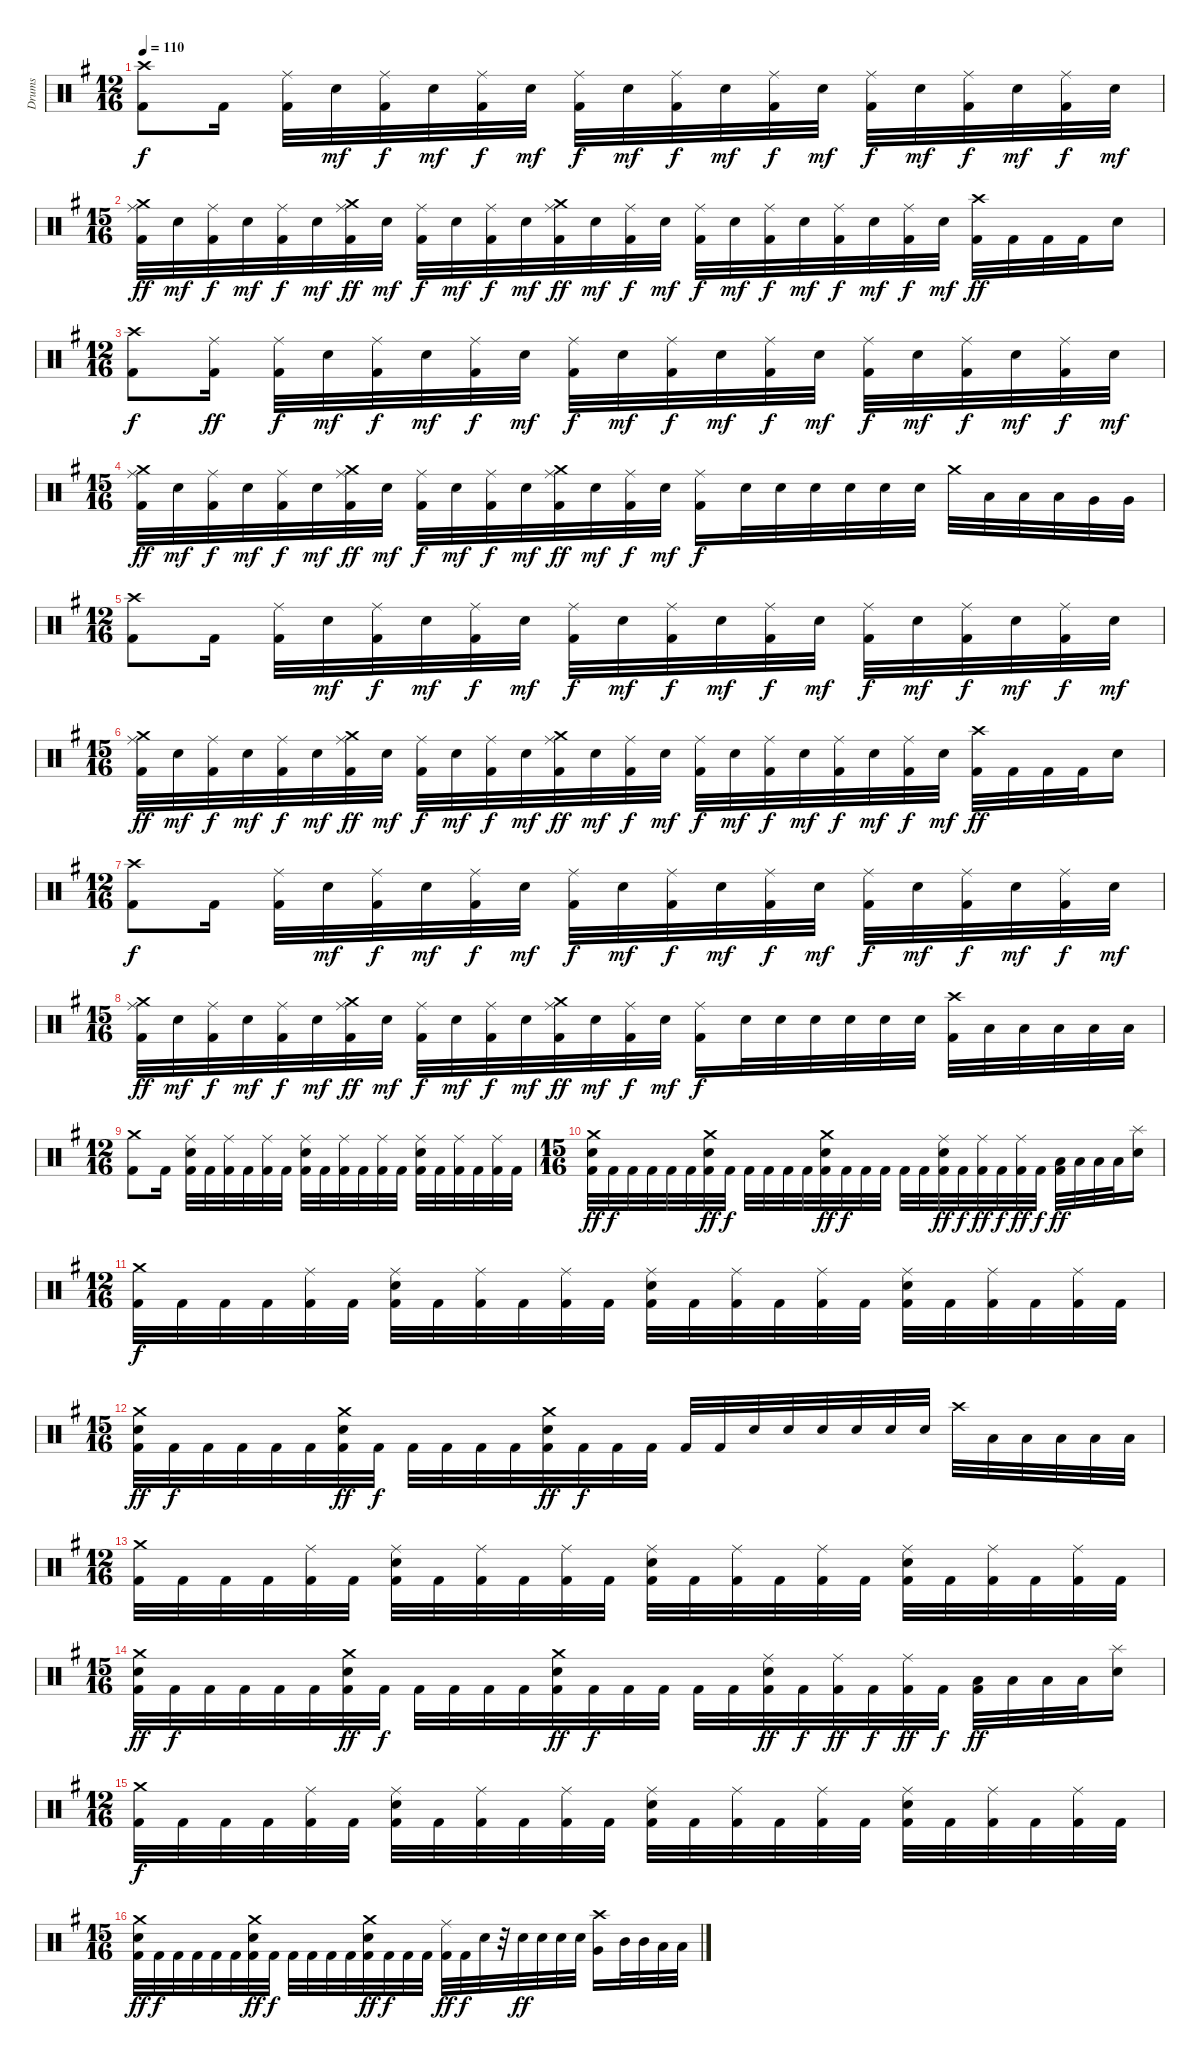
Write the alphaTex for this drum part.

\track ("Drums" "Drums") {instrument percussion}
\staff {score}
\articulation defaults
\ts (12 16)
\tempo 110
\clef neutral
\ks eminor
("Crash high (hit)" "Kick (hit) 2").8{dy f} "Kick (hit) 2".16 ("Ride (middle)" "Kick (hit) 2").32 "Snare (hit) 2".32{dy mf} ("Ride (middle)" "Kick (hit) 2").32{dy f} "Snare (hit) 2".32{dy mf} ("Ride (middle)" "Kick (hit) 2").32{dy f} "Snare (hit) 2".32{dy mf} ("Ride (middle)" "Kick (hit) 2").32{dy f} "Snare (hit) 2".32{dy mf} ("Ride (middle)" "Kick (hit) 2").32{dy f} "Snare (hit) 2".32{dy mf} ("Ride (middle)" "Kick (hit) 2").32{dy f} "Snare (hit) 2".32{dy mf} ("Ride (middle)" "Kick (hit) 2").32{dy f} "Snare (hit) 2".32{dy mf} ("Ride (middle)" "Kick (hit) 2").32{dy f} "Snare (hit) 2".32{dy mf} ("Ride (middle)" "Kick (hit) 2").32{dy f} "Snare (hit) 2".32{dy mf} |
\ts (15 16)
("Crash medium (hit)" "Ride (middle)" "Kick (hit) 2").32{dy ff} "Snare (hit) 2".32{dy mf} ("Ride (middle)" "Kick (hit) 2").32{dy f} "Snare (hit) 2".32{dy mf} ("Ride (middle)" "Kick (hit) 2").32{dy f} "Snare (hit) 2".32{dy mf} ("Crash medium (hit)" "Ride (middle)" "Kick (hit) 2").32{dy ff} "Snare (hit) 2".32{dy mf} ("Ride (middle)" "Kick (hit) 2").32{dy f} "Snare (hit) 2".32{dy mf} ("Ride (middle)" "Kick (hit) 2").32{dy f} "Snare (hit) 2".32{dy mf} ("Crash medium (hit)" "Ride (middle)" "Kick (hit) 2").32{dy ff} "Snare (hit) 2".32{dy mf} ("Ride (middle)" "Kick (hit) 2").32{dy f} "Snare (hit) 2".32{dy mf} ("Ride (middle)" "Kick (hit) 2").32{dy f} "Snare (hit) 2".32{dy mf} ("Ride (middle)" "Kick (hit) 2").32{dy f} "Snare (hit) 2".32{dy mf} ("Ride (middle)" "Kick (hit) 2").32{dy f} "Snare (hit) 2".32{dy mf} ("Ride (middle)" "Kick (hit) 2").32{dy f} "Snare (hit) 2".32{dy mf} ("Crash high (hit)" "Kick (hit) 2").32{dy ff} "Kick (hit) 2".32 "Kick (hit) 2".32 "Kick (hit) 2".32 "Electric Snare (hit)".16 |
\ts (12 16)
("Crash high (hit)" "Kick (hit) 2").8{dy f} ("Ride (middle)" "Kick (hit) 2").16{dy ff} ("Ride (middle)" "Kick (hit) 2").32{dy f} "Snare (hit) 2".32{dy mf} ("Ride (middle)" "Kick (hit) 2").32{dy f} "Snare (hit) 2".32{dy mf} ("Ride (middle)" "Kick (hit) 2").32{dy f} "Snare (hit) 2".32{dy mf} ("Ride (middle)" "Kick (hit) 2").32{dy f} "Snare (hit) 2".32{dy mf} ("Ride (middle)" "Kick (hit) 2").32{dy f} "Snare (hit) 2".32{dy mf} ("Ride (middle)" "Kick (hit) 2").32{dy f} "Snare (hit) 2".32{dy mf} ("Ride (middle)" "Kick (hit) 2").32{dy f} "Snare (hit) 2".32{dy mf} ("Ride (middle)" "Kick (hit) 2").32{dy f} "Snare (hit) 2".32{dy mf} ("Ride (middle)" "Kick (hit) 2").32{dy f} "Snare (hit) 2".32{dy mf} |
\ts (15 16)
("Crash medium (hit)" "Ride (middle)" "Kick (hit) 2").32{dy ff} "Snare (hit) 2".32{dy mf} ("Ride (middle)" "Kick (hit) 2").32{dy f} "Snare (hit) 2".32{dy mf} ("Ride (middle)" "Kick (hit) 2").32{dy f} "Snare (hit) 2".32{dy mf} ("Crash medium (hit)" "Ride (middle)" "Kick (hit) 2").32{dy ff} "Snare (hit) 2".32{dy mf} ("Ride (middle)" "Kick (hit) 2").32{dy f} "Snare (hit) 2".32{dy mf} ("Ride (middle)" "Kick (hit) 2").32{dy f} "Snare (hit) 2".32{dy mf} ("Crash medium (hit)" "Ride (middle)" "Kick (hit) 2").32{dy ff} "Snare (hit) 2".32{dy mf} ("Ride (middle)" "Kick (hit) 2").32{dy f} "Snare (hit) 2".32{dy mf} ("Ride (middle)" "Kick (hit) 2").16{dy f} "Snare (hit) 2".32 "Snare (hit) 2".32 "Snare (hit) 2".32 "Snare (hit) 2".32 "Snare (hit) 2".32 "Snare (hit) 2".32 "Crash medium (hit)".32 "Low Tom (hit)".32 "Low Tom (hit)".32 "Low Tom (hit)".32 "Very Low Tom (hit)".32 "Very Low Tom (hit)".32 |
\ts (12 16)
("Crash high (hit)" "Kick (hit) 2").8 "Kick (hit) 2".16 ("Ride (middle)" "Kick (hit) 2").32 "Snare (hit) 2".32{dy mf} ("Ride (middle)" "Kick (hit) 2").32{dy f} "Snare (hit) 2".32{dy mf} ("Ride (middle)" "Kick (hit) 2").32{dy f} "Snare (hit) 2".32{dy mf} ("Ride (middle)" "Kick (hit) 2").32{dy f} "Snare (hit) 2".32{dy mf} ("Ride (middle)" "Kick (hit) 2").32{dy f} "Snare (hit) 2".32{dy mf} ("Ride (middle)" "Kick (hit) 2").32{dy f} "Snare (hit) 2".32{dy mf} ("Ride (middle)" "Kick (hit) 2").32{dy f} "Snare (hit) 2".32{dy mf} ("Ride (middle)" "Kick (hit) 2").32{dy f} "Snare (hit) 2".32{dy mf} ("Ride (middle)" "Kick (hit) 2").32{dy f} "Snare (hit) 2".32{dy mf} |
\ts (15 16)
("Crash medium (hit)" "Ride (middle)" "Kick (hit) 2").32{dy ff} "Snare (hit) 2".32{dy mf} ("Ride (middle)" "Kick (hit) 2").32{dy f} "Snare (hit) 2".32{dy mf} ("Ride (middle)" "Kick (hit) 2").32{dy f} "Snare (hit) 2".32{dy mf} ("Crash medium (hit)" "Ride (middle)" "Kick (hit) 2").32{dy ff} "Snare (hit) 2".32{dy mf} ("Ride (middle)" "Kick (hit) 2").32{dy f} "Snare (hit) 2".32{dy mf} ("Ride (middle)" "Kick (hit) 2").32{dy f} "Snare (hit) 2".32{dy mf} ("Crash medium (hit)" "Ride (middle)" "Kick (hit) 2").32{dy ff} "Snare (hit) 2".32{dy mf} ("Ride (middle)" "Kick (hit) 2").32{dy f} "Snare (hit) 2".32{dy mf} ("Ride (middle)" "Kick (hit) 2").32{dy f} "Snare (hit) 2".32{dy mf} ("Ride (middle)" "Kick (hit) 2").32{dy f} "Snare (hit) 2".32{dy mf} ("Ride (middle)" "Kick (hit) 2").32{dy f} "Snare (hit) 2".32{dy mf} ("Ride (middle)" "Kick (hit) 2").32{dy f} "Snare (hit) 2".32{dy mf} ("Crash high (hit)" "Kick (hit) 2").32{dy ff} "Kick (hit) 2".32 "Kick (hit) 2".32 "Kick (hit) 2".32 "Electric Snare (hit)".16 |
\ts (12 16)
("Crash high (hit)" "Kick (hit) 2").8{dy f} "Kick (hit) 2".16 ("Ride (middle)" "Kick (hit) 2").32 "Snare (hit) 2".32{dy mf} ("Ride (middle)" "Kick (hit) 2").32{dy f} "Snare (hit) 2".32{dy mf} ("Ride (middle)" "Kick (hit) 2").32{dy f} "Snare (hit) 2".32{dy mf} ("Ride (middle)" "Kick (hit) 2").32{dy f} "Snare (hit) 2".32{dy mf} ("Ride (middle)" "Kick (hit) 2").32{dy f} "Snare (hit) 2".32{dy mf} ("Ride (middle)" "Kick (hit) 2").32{dy f} "Snare (hit) 2".32{dy mf} ("Ride (middle)" "Kick (hit) 2").32{dy f} "Snare (hit) 2".32{dy mf} ("Ride (middle)" "Kick (hit) 2").32{dy f} "Snare (hit) 2".32{dy mf} ("Ride (middle)" "Kick (hit) 2").32{dy f} "Snare (hit) 2".32{dy mf} |
\ts (15 16)
("Crash medium (hit)" "Ride (middle)" "Kick (hit) 2").32{dy ff} "Snare (hit) 2".32{dy mf} ("Ride (middle)" "Kick (hit) 2").32{dy f} "Snare (hit) 2".32{dy mf} ("Ride (middle)" "Kick (hit) 2").32{dy f} "Snare (hit) 2".32{dy mf} ("Crash medium (hit)" "Ride (middle)" "Kick (hit) 2").32{dy ff} "Snare (hit) 2".32{dy mf} ("Ride (middle)" "Kick (hit) 2").32{dy f} "Snare (hit) 2".32{dy mf} ("Ride (middle)" "Kick (hit) 2").32{dy f} "Snare (hit) 2".32{dy mf} ("Crash medium (hit)" "Ride (middle)" "Kick (hit) 2").32{dy ff} "Snare (hit) 2".32{dy mf} ("Ride (middle)" "Kick (hit) 2").32{dy f} "Snare (hit) 2".32{dy mf} ("Ride (middle)" "Kick (hit) 2").16{dy f} "Snare (hit) 2".32 "Snare (hit) 2".32 "Snare (hit) 2".32 "Snare (hit) 2".32 "Snare (hit) 2".32 "Snare (hit) 2".32 ("Crash high (hit)" "Kick (hit) 2").32 "Low Floor Tom (hit)".32 "Low Floor Tom (hit)".32 "Low Floor Tom (hit)".32 "Low Floor Tom (hit)".32 "Low Floor Tom (hit)".32 |
\ts (12 16)
("Crash medium (hit)" "Kick (hit) 2").8 "Kick (hit) 2".16 ("Ride (middle)" "Snare (hit) 2" "Kick (hit) 2").32 "Kick (hit) 2".32 ("Ride (middle)" "Kick (hit) 2").32 "Kick (hit) 2".32 ("Ride (middle)" "Kick (hit) 2").32 "Kick (hit) 2".32 ("Ride (middle)" "Snare (hit) 2" "Kick (hit) 2").32 "Kick (hit) 2".32 ("Ride (middle)" "Kick (hit) 2").32 "Kick (hit) 2".32 ("Ride (middle)" "Kick (hit) 2").32 "Kick (hit) 2".32 ("Ride (middle)" "Snare (hit) 2" "Kick (hit) 2").32 "Kick (hit) 2".32 ("Ride (middle)" "Kick (hit) 2").32 "Kick (hit) 2".32 ("Ride (middle)" "Kick (hit) 2").32 "Kick (hit) 2".32 |
\ts (15 16)
("Crash medium (hit)" "Snare (hit) 2" "Kick (hit) 2").32{dy ff} "Kick (hit) 2".32{dy f} "Kick (hit) 2".32 "Kick (hit) 2".32 "Kick (hit) 2".32 "Kick (hit) 2".32 ("Crash medium (hit)" "Snare (hit) 2" "Kick (hit) 2").32{dy ff} "Kick (hit) 2".32{dy f} "Kick (hit) 2".32 "Kick (hit) 2".32 "Kick (hit) 2".32 "Kick (hit) 2".32 ("Crash medium (hit)" "Snare (hit) 2" "Kick (hit) 2").32{dy ff} "Kick (hit) 2".32{dy f} "Kick (hit) 2".32 "Kick (hit) 2".32 "Kick (hit) 2".32 "Kick (hit) 2".32 ("Ride (middle)" "Snare (hit) 2" "Kick (hit) 2").32{dy ff} "Kick (hit) 2".32{dy f} ("Ride (middle)" "Kick (hit) 2").32{dy ff} "Kick (hit) 2".32{dy f} ("Ride (middle)" "Kick (hit) 2").32{dy ff} "Kick (hit) 2".32{dy f} ("Low Floor Tom (hit)" "Kick (hit) 2").32{dy ff} "Low Floor Tom (hit)".32 "Low Floor Tom (hit)".32 "Low Floor Tom (hit)".32 ("Splash (hit)" "Snare (hit) 2").16 |
\ts (12 16)
("Crash medium (hit)" "Kick (hit) 2").32{dy f} "Kick (hit) 2".32 "Kick (hit) 2".32 "Kick (hit) 2".32 ("Ride (middle)" "Kick (hit) 2").32 "Kick (hit) 2".32 ("Ride (middle)" "Snare (hit) 2" "Kick (hit) 2").32 "Kick (hit) 2".32 ("Ride (middle)" "Kick (hit) 2").32 "Kick (hit) 2".32 ("Ride (middle)" "Kick (hit) 2").32 "Kick (hit) 2".32 ("Ride (middle)" "Snare (hit) 2" "Kick (hit) 2").32 "Kick (hit) 2".32 ("Ride (middle)" "Kick (hit) 2").32 "Kick (hit) 2".32 ("Ride (middle)" "Kick (hit) 2").32 "Kick (hit) 2".32 ("Ride (middle)" "Snare (hit) 2" "Kick (hit) 2").32 "Kick (hit) 2".32 ("Ride (middle)" "Kick (hit) 2").32 "Kick (hit) 2".32 ("Ride (middle)" "Kick (hit) 2").32 "Kick (hit) 2".32 |
\ts (15 16)
("Crash medium (hit)" "Snare (hit) 2" "Kick (hit) 2").32{dy ff} "Kick (hit) 2".32{dy f} "Kick (hit) 2".32 "Kick (hit) 2".32 "Kick (hit) 2".32 "Kick (hit) 2".32 ("Crash medium (hit)" "Snare (hit) 2" "Kick (hit) 2").32{dy ff} "Kick (hit) 2".32{dy f} "Kick (hit) 2".32 "Kick (hit) 2".32 "Kick (hit) 2".32 "Kick (hit) 2".32 ("Crash medium (hit)" "Snare (hit) 2" "Kick (hit) 2").32{dy ff} "Kick (hit) 2".32{dy f} "Kick (hit) 2".32 "Kick (hit) 2".32 "Kick (hit) 2".32 "Kick (hit) 2".32 "Snare (hit) 2".32 "Snare (hit) 2".32 "Snare (hit) 2".32 "Snare (hit) 2".32 "Snare (hit) 2".32 "Snare (hit) 2".32 "Crash high (hit)".32 "Low Floor Tom (hit)".32 "Low Floor Tom (hit)".32 "Low Floor Tom (hit)".32 "Low Floor Tom (hit)".32 "Low Floor Tom (hit)".32 |
\ts (12 16)
("Crash medium (hit)" "Kick (hit) 2").32 "Kick (hit) 2".32 "Kick (hit) 2".32 "Kick (hit) 2".32 ("Ride (middle)" "Kick (hit) 2").32 "Kick (hit) 2".32 ("Ride (middle)" "Snare (hit) 2" "Kick (hit) 2").32 "Kick (hit) 2".32 ("Ride (middle)" "Kick (hit) 2").32 "Kick (hit) 2".32 ("Ride (middle)" "Kick (hit) 2").32 "Kick (hit) 2".32 ("Ride (middle)" "Snare (hit) 2" "Kick (hit) 2").32 "Kick (hit) 2".32 ("Ride (middle)" "Kick (hit) 2").32 "Kick (hit) 2".32 ("Ride (middle)" "Kick (hit) 2").32 "Kick (hit) 2".32 ("Ride (middle)" "Snare (hit) 2" "Kick (hit) 2").32 "Kick (hit) 2".32 ("Ride (middle)" "Kick (hit) 2").32 "Kick (hit) 2".32 ("Ride (middle)" "Kick (hit) 2").32 "Kick (hit) 2".32 |
\ts (15 16)
("Crash medium (hit)" "Snare (hit) 2" "Kick (hit) 2").32{dy ff} "Kick (hit) 2".32{dy f} "Kick (hit) 2".32 "Kick (hit) 2".32 "Kick (hit) 2".32 "Kick (hit) 2".32 ("Crash medium (hit)" "Snare (hit) 2" "Kick (hit) 2").32{dy ff} "Kick (hit) 2".32{dy f} "Kick (hit) 2".32 "Kick (hit) 2".32 "Kick (hit) 2".32 "Kick (hit) 2".32 ("Crash medium (hit)" "Snare (hit) 2" "Kick (hit) 2").32{dy ff} "Kick (hit) 2".32{dy f} "Kick (hit) 2".32 "Kick (hit) 2".32 "Kick (hit) 2".32 "Kick (hit) 2".32 ("Ride (middle)" "Snare (hit) 2" "Kick (hit) 2").32{dy ff} "Kick (hit) 2".32{dy f} ("Ride (middle)" "Kick (hit) 2").32{dy ff} "Kick (hit) 2".32{dy f} ("Ride (middle)" "Kick (hit) 2").32{dy ff} "Kick (hit) 2".32{dy f} ("Low Floor Tom (hit)" "Kick (hit) 2").32{dy ff} "Low Floor Tom (hit)".32 "Low Floor Tom (hit)".32 "Low Floor Tom (hit)".32 ("Splash (hit)" "Snare (hit) 2").16 |
\ts (12 16)
("Crash medium (hit)" "Kick (hit) 2").32{dy f} "Kick (hit) 2".32 "Kick (hit) 2".32 "Kick (hit) 2".32 ("Ride (middle)" "Kick (hit) 2").32 "Kick (hit) 2".32 ("Ride (middle)" "Snare (hit) 2" "Kick (hit) 2").32 "Kick (hit) 2".32 ("Ride (middle)" "Kick (hit) 2").32 "Kick (hit) 2".32 ("Ride (middle)" "Kick (hit) 2").32 "Kick (hit) 2".32 ("Ride (middle)" "Snare (hit) 2" "Kick (hit) 2").32 "Kick (hit) 2".32 ("Ride (middle)" "Kick (hit) 2").32 "Kick (hit) 2".32 ("Ride (middle)" "Kick (hit) 2").32 "Kick (hit) 2".32 ("Ride (middle)" "Snare (hit) 2" "Kick (hit) 2").32 "Kick (hit) 2".32 ("Ride (middle)" "Kick (hit) 2").32 "Kick (hit) 2".32 ("Ride (middle)" "Kick (hit) 2").32 "Kick (hit) 2".32 |
\ts (15 16)
("Crash medium (hit)" "Snare (hit) 2" "Kick (hit) 2").32{dy ff} "Kick (hit) 2".32{dy f} "Kick (hit) 2".32 "Kick (hit) 2".32 "Kick (hit) 2".32 "Kick (hit) 2".32 ("Crash medium (hit)" "Snare (hit) 2" "Kick (hit) 2").32{dy ff} "Kick (hit) 2".32{dy f} "Kick (hit) 2".32 "Kick (hit) 2".32 "Kick (hit) 2".32 "Kick (hit) 2".32 ("Crash medium (hit)" "Snare (hit) 2" "Kick (hit) 2").32{dy ff} "Kick (hit) 2".32{dy f} "Kick (hit) 2".32 "Kick (hit) 2".32 ("Ride (middle)" "Kick (hit) 2").32{dy ff} "Kick (hit) 2".32{dy f} "Snare (hit) 2".32 r.32 "Snare (hit) 2".32{dy ff} "Snare (hit) 2".32 "Snare (hit) 2".32 "Snare (hit) 2".32 ("Crash high (hit)" "Very Low Tom (hit)").16 "Mid Tom (hit)".32 "Mid Tom (hit)".32 "Low Tom (hit)".32 "Low Tom (hit)".32
